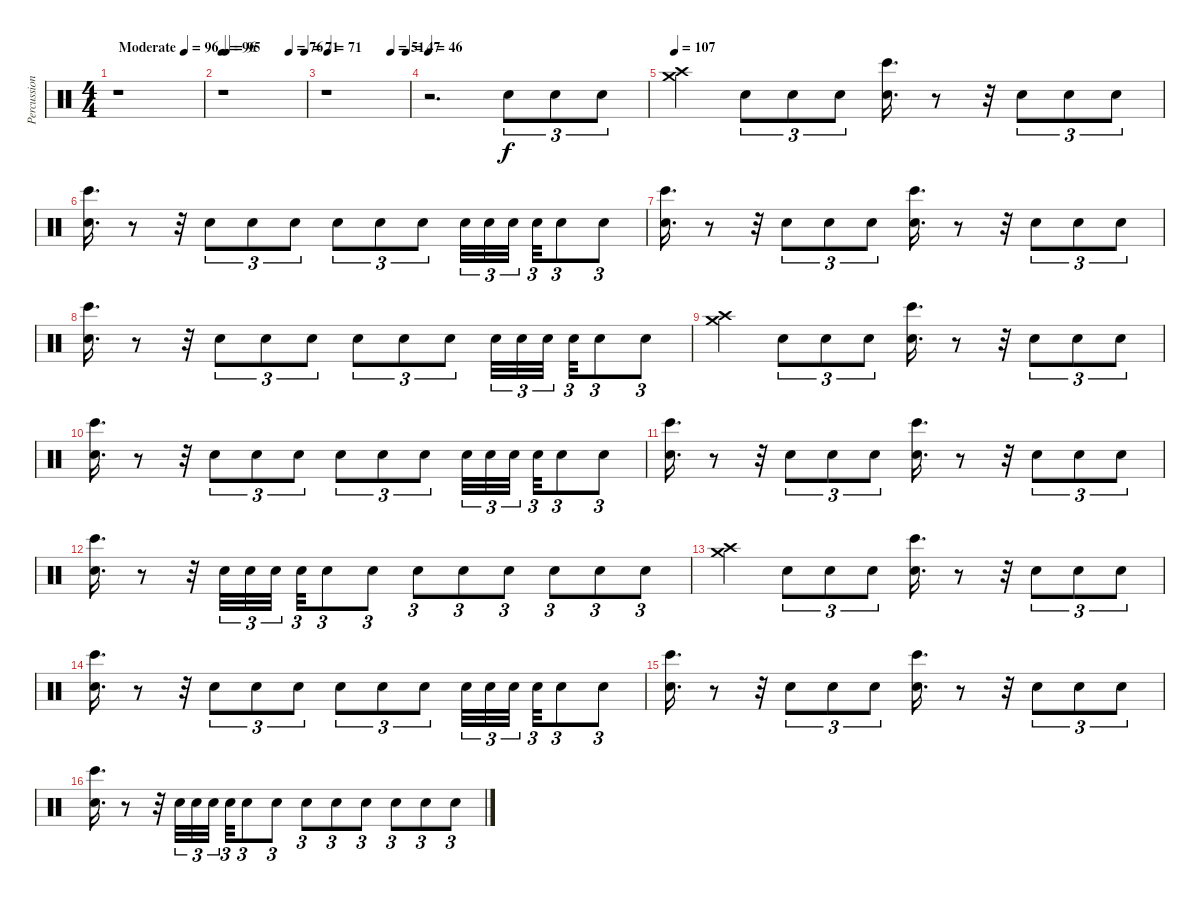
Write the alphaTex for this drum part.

\track ("Percussion" "Percussion") {instrument percussion}
\staff {score}
\articulation defaults
\ts (4 4)
\tempo (96 "Moderate")
\clef neutral
\ks c
r.1{dy f} |
\tempo 96
\tempo (95 0.052083333333333336)
\tempo (76 0.8020833333333334)
\tempo (71 0.9895833333333334)
r.1 |
\tempo (71 0.03125)
\tempo (51 0.78125)
\tempo (47 0.96875)
r.1 |
\tempo 46
r.2{d} "Electric Snare (hit)".8{tu (3 2)} "Electric Snare (hit)".8{tu (3 2)} "Electric Snare (hit)".8{tu (3 2)} |
\tempo 107
("Crash medium (hit)" "Crash high (hit)").4 "Electric Snare (hit)".8{tu (3 2)} "Electric Snare (hit)".8{tu (3 2)} "Electric Snare (hit)".8{tu (3 2)} ("Hand Clap (hit)" "Bongo High (hit)").16{d} r.8 r.32 "Electric Snare (hit)".8{tu (3 2)} "Electric Snare (hit)".8{tu (3 2)} "Electric Snare (hit)".8{tu (3 2)} |
("Hand Clap (hit)" "Bongo High (hit)").16{d} r.8 r.32 "Electric Snare (hit)".8{tu (3 2)} "Electric Snare (hit)".8{tu (3 2)} "Electric Snare (hit)".8{tu (3 2)} "Electric Snare (hit)".8{tu (3 2)} "Electric Snare (hit)".8{tu (3 2)} "Electric Snare (hit)".8{tu (3 2)} "Electric Snare (hit)".32{tu (3 2)} "Electric Snare (hit)".32{tu (3 2)} "Electric Snare (hit)".32{tu (3 2) beam splitsecondary} "Electric Snare (hit)".32{tu (3 2)} "Electric Snare (hit)".8{tu (3 2)} "Electric Snare (hit)".8{tu (3 2)} |
("Hand Clap (hit)" "Bongo High (hit)").16{d} r.8 r.32 "Electric Snare (hit)".8{tu (3 2)} "Electric Snare (hit)".8{tu (3 2)} "Electric Snare (hit)".8{tu (3 2)} ("Hand Clap (hit)" "Bongo High (hit)").16{d} r.8 r.32 "Electric Snare (hit)".8{tu (3 2)} "Electric Snare (hit)".8{tu (3 2)} "Electric Snare (hit)".8{tu (3 2)} |
("Hand Clap (hit)" "Bongo High (hit)").16{d} r.8 r.32 "Electric Snare (hit)".8{tu (3 2)} "Electric Snare (hit)".8{tu (3 2)} "Electric Snare (hit)".8{tu (3 2)} "Electric Snare (hit)".8{tu (3 2)} "Electric Snare (hit)".8{tu (3 2)} "Electric Snare (hit)".8{tu (3 2)} "Electric Snare (hit)".32{tu (3 2)} "Electric Snare (hit)".32{tu (3 2)} "Electric Snare (hit)".32{tu (3 2) beam splitsecondary} "Electric Snare (hit)".32{tu (3 2)} "Electric Snare (hit)".8{tu (3 2)} "Electric Snare (hit)".8{tu (3 2)} |
("Crash medium (hit)" "Crash high (hit)").4 "Electric Snare (hit)".8{tu (3 2)} "Electric Snare (hit)".8{tu (3 2)} "Electric Snare (hit)".8{tu (3 2)} ("Hand Clap (hit)" "Bongo High (hit)").16{d} r.8 r.32 "Electric Snare (hit)".8{tu (3 2)} "Electric Snare (hit)".8{tu (3 2)} "Electric Snare (hit)".8{tu (3 2)} |
("Hand Clap (hit)" "Bongo High (hit)").16{d} r.8 r.32 "Electric Snare (hit)".8{tu (3 2)} "Electric Snare (hit)".8{tu (3 2)} "Electric Snare (hit)".8{tu (3 2)} "Electric Snare (hit)".8{tu (3 2)} "Electric Snare (hit)".8{tu (3 2)} "Electric Snare (hit)".8{tu (3 2)} "Electric Snare (hit)".32{tu (3 2)} "Electric Snare (hit)".32{tu (3 2)} "Electric Snare (hit)".32{tu (3 2) beam splitsecondary} "Electric Snare (hit)".32{tu (3 2)} "Electric Snare (hit)".8{tu (3 2)} "Electric Snare (hit)".8{tu (3 2)} |
("Bongo High (hit)" "Hand Clap (hit)").16{d} r.8 r.32 "Electric Snare (hit)".8{tu (3 2)} "Electric Snare (hit)".8{tu (3 2)} "Electric Snare (hit)".8{tu (3 2)} ("Hand Clap (hit)" "Bongo High (hit)").16{d} r.8 r.32 "Electric Snare (hit)".8{tu (3 2)} "Electric Snare (hit)".8{tu (3 2)} "Electric Snare (hit)".8{tu (3 2)} |
("Hand Clap (hit)" "Bongo High (hit)").16{d} r.8 r.32 "Electric Snare (hit)".32{tu (3 2)} "Electric Snare (hit)".32{tu (3 2)} "Electric Snare (hit)".32{tu (3 2) beam splitsecondary} "Electric Snare (hit)".32{tu (3 2)} "Electric Snare (hit)".8{tu (3 2)} "Electric Snare (hit)".8{tu (3 2)} "Electric Snare (hit)".8{tu (3 2)} "Electric Snare (hit)".8{tu (3 2)} "Electric Snare (hit)".8{tu (3 2)} "Electric Snare (hit)".8{tu (3 2)} "Electric Snare (hit)".8{tu (3 2)} "Electric Snare (hit)".8{tu (3 2)} |
("Crash high (hit)" "Crash medium (hit)").4 "Electric Snare (hit)".8{tu (3 2)} "Electric Snare (hit)".8{tu (3 2)} "Electric Snare (hit)".8{tu (3 2)} ("Bongo High (hit)" "Hand Clap (hit)").16{d} r.8 r.32 "Electric Snare (hit)".8{tu (3 2)} "Electric Snare (hit)".8{tu (3 2)} "Electric Snare (hit)".8{tu (3 2)} |
("Hand Clap (hit)" "Bongo High (hit)").16{d} r.8 r.32 "Electric Snare (hit)".8{tu (3 2)} "Electric Snare (hit)".8{tu (3 2)} "Electric Snare (hit)".8{tu (3 2)} "Electric Snare (hit)".8{tu (3 2)} "Electric Snare (hit)".8{tu (3 2)} "Electric Snare (hit)".8{tu (3 2)} "Electric Snare (hit)".32{tu (3 2)} "Electric Snare (hit)".32{tu (3 2)} "Electric Snare (hit)".32{tu (3 2) beam splitsecondary} "Electric Snare (hit)".32{tu (3 2)} "Electric Snare (hit)".8{tu (3 2)} "Electric Snare (hit)".8{tu (3 2)} |
("Hand Clap (hit)" "Bongo High (hit)").16{d} r.8 r.32 "Electric Snare (hit)".8{tu (3 2)} "Electric Snare (hit)".8{tu (3 2)} "Electric Snare (hit)".8{tu (3 2)} ("Hand Clap (hit)" "Bongo High (hit)").16{d} r.8 r.32 "Electric Snare (hit)".8{tu (3 2)} "Electric Snare (hit)".8{tu (3 2)} "Electric Snare (hit)".8{tu (3 2)} |
("Bongo High (hit)" "Hand Clap (hit)").16{d} r.8 r.32 "Electric Snare (hit)".32{tu (3 2)} "Electric Snare (hit)".32{tu (3 2)} "Electric Snare (hit)".32{tu (3 2) beam splitsecondary} "Electric Snare (hit)".32{tu (3 2)} "Electric Snare (hit)".8{tu (3 2)} "Electric Snare (hit)".8{tu (3 2)} "Electric Snare (hit)".8{tu (3 2)} "Electric Snare (hit)".8{tu (3 2)} "Electric Snare (hit)".8{tu (3 2)} "Electric Snare (hit)".8{tu (3 2)} "Electric Snare (hit)".8{tu (3 2)} "Electric Snare (hit)".8{tu (3 2)}
